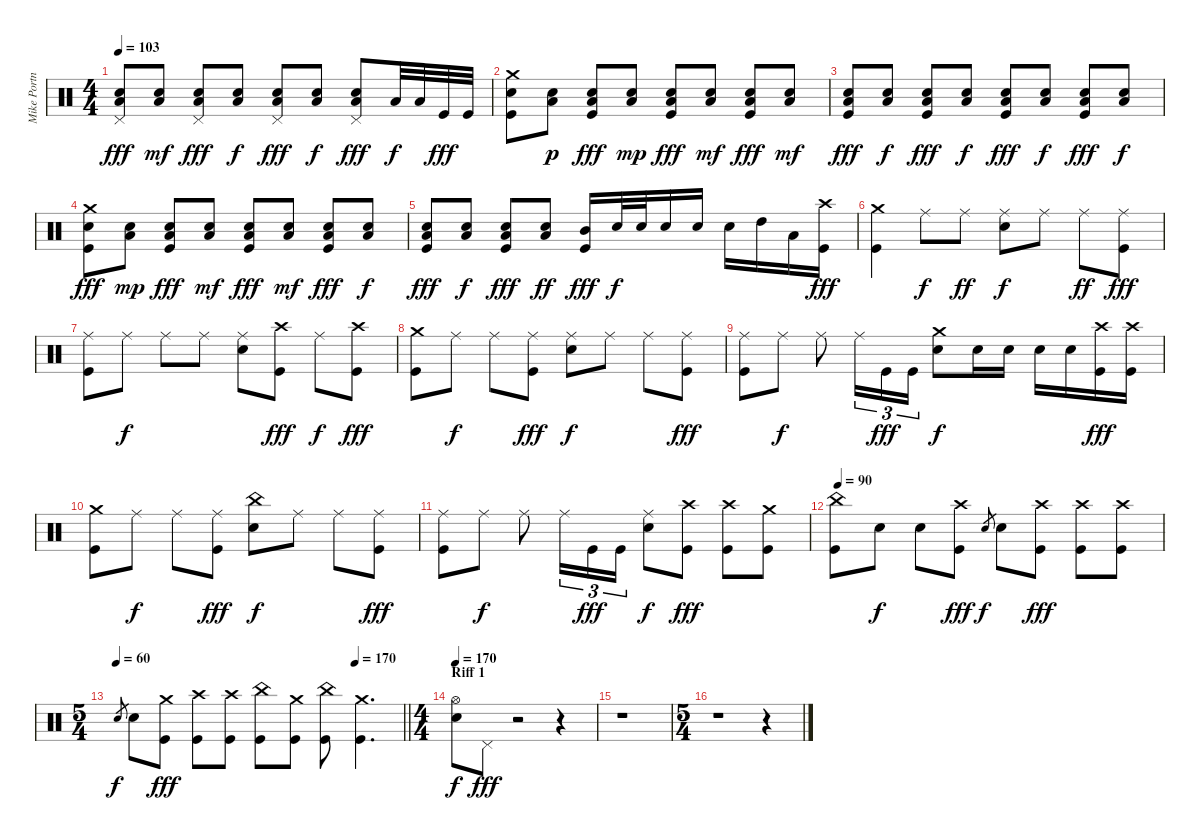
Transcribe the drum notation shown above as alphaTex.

\track ("Mike Portnoy" "Mike Portn") {instrument percussion}
\staff {score}
\articulation defaults
\ts (4 4)
\tempo 103
\clef neutral
\ks c
("Low Tom (hit)" "Electric Snare (hit)" "Pedal Hi-Hat (hit)").8{dy fff} ("Low Tom (hit)" "Electric Snare (hit)").8{dy mf} ("Low Tom (hit)" "Electric Snare (hit)" "Pedal Hi-Hat (hit)").8{dy fff} ("Low Tom (hit)" "Electric Snare (hit)").8{dy f} ("Low Tom (hit)" "Electric Snare (hit)" "Pedal Hi-Hat (hit)").8{dy fff} ("Low Tom (hit)" "Electric Snare (hit)").8{dy f} ("Low Tom (hit)" "Electric Snare (hit)" "Pedal Hi-Hat (hit)").8{dy fff} "Low Tom (hit)".32{dy f} "Low Tom (hit)".32 "Kick (hit)".32{dy fff} "Kick (hit)".32 |
("Crash medium (hit)" "Electric Snare (hit)" "Kick (hit)").8 ("Low Tom (hit)" "Electric Snare (hit)").8{dy p} ("Low Tom (hit)" "Electric Snare (hit)" "Kick (hit)").8{dy fff} ("Low Tom (hit)" "Electric Snare (hit)").8{dy mp} ("Low Tom (hit)" "Electric Snare (hit)" "Kick (hit)").8{dy fff} ("Low Tom (hit)" "Electric Snare (hit)").8{dy mf} ("Low Tom (hit)" "Electric Snare (hit)" "Kick (hit)").8{dy fff} ("Low Tom (hit)" "Electric Snare (hit)").8{dy mf} |
("Low Tom (hit)" "Electric Snare (hit)" "Kick (hit)").8{dy fff} ("Low Tom (hit)" "Electric Snare (hit)").8{dy f} ("Low Tom (hit)" "Electric Snare (hit)" "Kick (hit)").8{dy fff} ("Low Tom (hit)" "Electric Snare (hit)").8{dy f} ("Low Tom (hit)" "Electric Snare (hit)" "Kick (hit)").8{dy fff} ("Low Tom (hit)" "Electric Snare (hit)").8{dy f} ("Low Tom (hit)" "Electric Snare (hit)" "Kick (hit)").8{dy fff} ("Low Tom (hit)" "Electric Snare (hit)").8{dy f} |
("Crash medium (hit)" "Electric Snare (hit)" "Kick (hit)").8{dy fff} ("Low Tom (hit)" "Electric Snare (hit)").8{dy mp} ("Low Tom (hit)" "Electric Snare (hit)" "Kick (hit)").8{dy fff} ("Low Tom (hit)" "Electric Snare (hit)").8{dy mf} ("Low Tom (hit)" "Electric Snare (hit)" "Kick (hit)").8{dy fff} ("Low Tom (hit)" "Electric Snare (hit)").8{dy mf} ("Low Tom (hit)" "Electric Snare (hit)" "Kick (hit)").8{dy fff} ("Low Tom (hit)" "Electric Snare (hit)").8{dy f} |
("Low Tom (hit)" "Electric Snare (hit)" "Kick (hit)").8{dy fff} ("Low Tom (hit)" "Electric Snare (hit)").8{dy f} ("Low Tom (hit)" "Electric Snare (hit)" "Kick (hit)").8{dy fff} ("Low Tom (hit)" "Electric Snare (hit)").8{dy ff} ("Mid Tom (hit)" "Kick (hit)").16{dy fff} "Electric Snare (hit)".32{dy f} "Electric Snare (hit)".32 "Electric Snare (hit)".16 "Electric Snare (hit)".16 "Electric Snare (hit)".16 "High Tom (hit)".16 "Low Tom (hit)".16 ("Crash high (hit)" "Kick (hit)").16{dy fff} |
("Crash medium (hit)" "Kick (hit)").4 "Ride (middle)".8{dy f} "Ride (middle)".8{dy ff} ("Ride (middle)" "Electric Snare (hit)").8{dy f} "Ride (middle)".8 "Ride (middle)".8{dy ff} ("Ride (middle)" "Kick (hit)").8{dy fff} |
("Ride (middle)" "Kick (hit)").8 "Ride (middle)".8{dy f} "Ride (middle)".8 "Ride (middle)".8 ("Ride (middle)" "Electric Snare (hit)").8 ("Crash high (hit)" "Kick (hit)").8{dy fff} "Ride (middle)".8{dy f} ("Crash high (hit)" "Kick (hit)").8{dy fff} |
("Crash medium (hit)" "Kick (hit)").8 "Ride (middle)".8{dy f} "Ride (middle)".8 ("Ride (middle)" "Kick (hit)").8{dy fff} ("Ride (middle)" "Electric Snare (hit)").8{dy f} "Ride (middle)".8 "Ride (middle)".8 ("Ride (middle)" "Kick (hit)").8{dy fff} |
("Ride (middle)" "Kick (hit)").8 "Ride (middle)".8{dy f} "Ride (middle)".8 "Ride (middle)".16{tu (3 2)} "Kick (hit)".16{tu (3 2) dy fff} "Kick (hit)".16{tu (3 2)} ("Crash medium (hit)" "Electric Snare (hit)").8{dy f} "Electric Snare (hit)".16 "Electric Snare (hit)".16 "Electric Snare (hit)".16 "Electric Snare (hit)".16 ("Crash high (hit)" "Kick (hit)").16{dy fff} ("Crash high (hit)" "Kick (hit)").16 |
("Crash medium (hit)" "Kick (hit)").8 "Ride (middle)".8{dy f} "Ride (middle)".8 ("Ride (middle)" "Kick (hit)").8{dy fff} ("China (hit)" "Electric Snare (hit)").8{dy f} "Ride (middle)".8 "Ride (middle)".8 ("Ride (middle)" "Kick (hit)").8{dy fff} |
("Ride (middle)" "Kick (hit)").8 "Ride (middle)".8{dy f} "Ride (middle)".8 "Ride (middle)".16{tu (3 2)} "Kick (hit)".16{tu (3 2) dy fff} "Kick (hit)".16{tu (3 2)} ("Ride (middle)" "Electric Snare (hit)").8{dy f} ("Crash high (hit)" "Kick (hit)").8{dy fff} ("Crash high (hit)" "Kick (hit)").8 ("Crash medium (hit)" "Kick (hit)").8 |
\tempo 90
("China (hit)" "Kick (hit)").8 "Electric Snare (hit)".8{dy f} "Electric Snare (hit)".8 ("Crash high (hit)" "Kick (hit)").8{dy fff} "Electric Snare (hit)".8{gr dy f} "Electric Snare (hit)".8 ("Crash high (hit)" "Kick (hit)").8{dy fff} ("Crash high (hit)" "Kick (hit)").8 ("Crash high (hit)" "Kick (hit)").8 |
\ts (5 4)
\tempo 60
\tempo (170 0.8333333333333334)
\barLineRight lightlight "Electric Snare (hit)".8{gr dy f} "Electric Snare (hit)".8
("Crash medium (hit)" "Kick (hit)").8{dy fff} ("Crash high (hit)" "Kick (hit)").8 ("Crash high (hit)" "Kick (hit)").8 ("China (hit)" "Kick (hit)").8 ("Crash medium (hit)" "Kick (hit)").8 ("China (hit)" "Kick (hit)").8 ("Crash medium (hit)" "Kick (hit)").4{d} |
\ts (4 4)
\section ("" "Riff 1")
\tempo 170
("Hi-Hat (open)" "Electric Snare (hit)").8{dy f} "Pedal Hi-Hat (hit)".8{dy fff} r.2 r.4 |
r.1 |
\ts (5 4)
r.1 r.4
